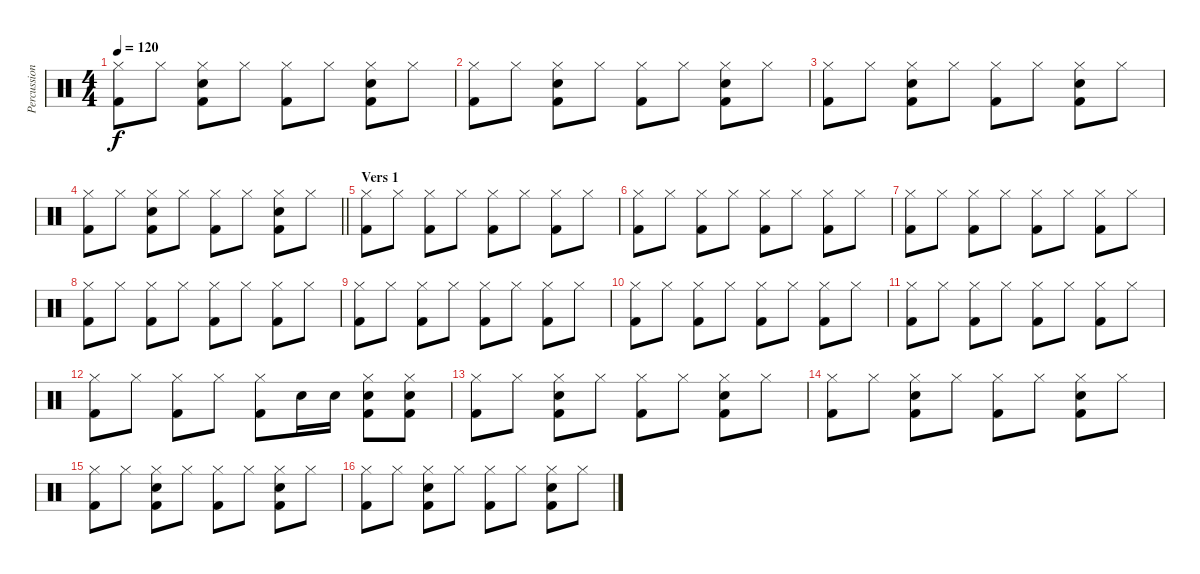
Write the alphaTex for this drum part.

\track ("Percussion" "Percussion") {instrument percussion}
\staff {score}
\articulation defaults
\ts (4 4)
\tempo 120
\clef neutral
\ks c
("Hi-Hat (closed)" "Kick (hit) 2").8{dy f} "Hi-Hat (closed)".8 ("Hi-Hat (closed)" "Snare (hit) 2" "Kick (hit) 2").8 "Hi-Hat (closed)".8 ("Hi-Hat (closed)" "Kick (hit) 2").8 "Hi-Hat (closed)".8 ("Hi-Hat (closed)" "Snare (hit) 2" "Kick (hit) 2").8 "Hi-Hat (closed)".8 |
("Hi-Hat (closed)" "Kick (hit) 2").8 "Hi-Hat (closed)".8 ("Hi-Hat (closed)" "Snare (hit) 2" "Kick (hit) 2").8 "Hi-Hat (closed)".8 ("Hi-Hat (closed)" "Kick (hit) 2").8 "Hi-Hat (closed)".8 ("Hi-Hat (closed)" "Snare (hit) 2" "Kick (hit) 2").8 "Hi-Hat (closed)".8 |
("Hi-Hat (closed)" "Kick (hit) 2").8 "Hi-Hat (closed)".8 ("Hi-Hat (closed)" "Snare (hit) 2" "Kick (hit) 2").8 "Hi-Hat (closed)".8 ("Hi-Hat (closed)" "Kick (hit) 2").8 "Hi-Hat (closed)".8 ("Hi-Hat (closed)" "Snare (hit) 2" "Kick (hit) 2").8 "Hi-Hat (closed)".8 |
\barLineRight lightlight
("Hi-Hat (closed)" "Kick (hit) 2").8 "Hi-Hat (closed)".8 ("Hi-Hat (closed)" "Snare (hit) 2" "Kick (hit) 2").8 "Hi-Hat (closed)".8 ("Hi-Hat (closed)" "Kick (hit) 2").8 "Hi-Hat (closed)".8 ("Hi-Hat (closed)" "Snare (hit) 2" "Kick (hit) 2").8 "Hi-Hat (closed)".8 |
\section ("" "Vers 1")
("Hi-Hat (closed)" "Kick (hit) 2").8 "Hi-Hat (closed)".8 ("Hi-Hat (closed)" "Kick (hit) 2").8 "Hi-Hat (closed)".8 ("Hi-Hat (closed)" "Kick (hit) 2").8 "Hi-Hat (closed)".8 ("Hi-Hat (closed)" "Kick (hit) 2").8 "Hi-Hat (closed)".8 |
("Hi-Hat (closed)" "Kick (hit) 2").8 "Hi-Hat (closed)".8 ("Hi-Hat (closed)" "Kick (hit) 2").8 "Hi-Hat (closed)".8 ("Hi-Hat (closed)" "Kick (hit) 2").8 "Hi-Hat (closed)".8 ("Hi-Hat (closed)" "Kick (hit) 2").8 "Hi-Hat (closed)".8 |
("Hi-Hat (closed)" "Kick (hit) 2").8 "Hi-Hat (closed)".8 ("Hi-Hat (closed)" "Kick (hit) 2").8 "Hi-Hat (closed)".8 ("Hi-Hat (closed)" "Kick (hit) 2").8 "Hi-Hat (closed)".8 ("Hi-Hat (closed)" "Kick (hit) 2").8 "Hi-Hat (closed)".8 |
("Hi-Hat (closed)" "Kick (hit) 2").8 "Hi-Hat (closed)".8 ("Hi-Hat (closed)" "Kick (hit) 2").8 "Hi-Hat (closed)".8 ("Hi-Hat (closed)" "Kick (hit) 2").8 "Hi-Hat (closed)".8 ("Hi-Hat (closed)" "Kick (hit) 2").8 "Hi-Hat (closed)".8 |
("Hi-Hat (closed)" "Kick (hit) 2").8 "Hi-Hat (closed)".8 ("Hi-Hat (closed)" "Kick (hit) 2").8 "Hi-Hat (closed)".8 ("Hi-Hat (closed)" "Kick (hit) 2").8 "Hi-Hat (closed)".8 ("Hi-Hat (closed)" "Kick (hit) 2").8 "Hi-Hat (closed)".8 |
("Hi-Hat (closed)" "Kick (hit) 2").8 "Hi-Hat (closed)".8 ("Hi-Hat (closed)" "Kick (hit) 2").8 "Hi-Hat (closed)".8 ("Hi-Hat (closed)" "Kick (hit) 2").8 "Hi-Hat (closed)".8 ("Hi-Hat (closed)" "Kick (hit) 2").8 "Hi-Hat (closed)".8 |
("Hi-Hat (closed)" "Kick (hit) 2").8 "Hi-Hat (closed)".8 ("Hi-Hat (closed)" "Kick (hit) 2").8 "Hi-Hat (closed)".8 ("Hi-Hat (closed)" "Kick (hit) 2").8 "Hi-Hat (closed)".8 ("Hi-Hat (closed)" "Kick (hit) 2").8 "Hi-Hat (closed)".8 |
("Hi-Hat (closed)" "Kick (hit) 2").8 "Hi-Hat (closed)".8 ("Hi-Hat (closed)" "Kick (hit) 2").8 "Hi-Hat (closed)".8 ("Hi-Hat (closed)" "Kick (hit) 2").8 "Snare (hit) 2".16 "Snare (hit) 2".16 ("Hi-Hat (closed)" "Snare (hit) 2" "Kick (hit) 2").8 ("Hi-Hat (closed)" "Snare (hit) 2" "Kick (hit) 2").8 |
("Hi-Hat (closed)" "Kick (hit) 2").8 "Hi-Hat (closed)".8 ("Hi-Hat (closed)" "Snare (hit) 2" "Kick (hit) 2").8 "Hi-Hat (closed)".8 ("Hi-Hat (closed)" "Kick (hit) 2").8 "Hi-Hat (closed)".8 ("Hi-Hat (closed)" "Snare (hit) 2" "Kick (hit) 2").8 "Hi-Hat (closed)".8 |
("Hi-Hat (closed)" "Kick (hit) 2").8 "Hi-Hat (closed)".8 ("Hi-Hat (closed)" "Snare (hit) 2" "Kick (hit) 2").8 "Hi-Hat (closed)".8 ("Hi-Hat (closed)" "Kick (hit) 2").8 "Hi-Hat (closed)".8 ("Hi-Hat (closed)" "Snare (hit) 2" "Kick (hit) 2").8 "Hi-Hat (closed)".8 |
("Hi-Hat (closed)" "Kick (hit) 2").8 "Hi-Hat (closed)".8 ("Hi-Hat (closed)" "Snare (hit) 2" "Kick (hit) 2").8 "Hi-Hat (closed)".8 ("Hi-Hat (closed)" "Kick (hit) 2").8 "Hi-Hat (closed)".8 ("Hi-Hat (closed)" "Snare (hit) 2" "Kick (hit) 2").8 "Hi-Hat (closed)".8 |
("Hi-Hat (closed)" "Kick (hit) 2").8 "Hi-Hat (closed)".8 ("Hi-Hat (closed)" "Snare (hit) 2" "Kick (hit) 2").8 "Hi-Hat (closed)".8 ("Hi-Hat (closed)" "Kick (hit) 2").8 "Hi-Hat (closed)".8 ("Hi-Hat (closed)" "Snare (hit) 2" "Kick (hit) 2").8 "Hi-Hat (closed)".8
